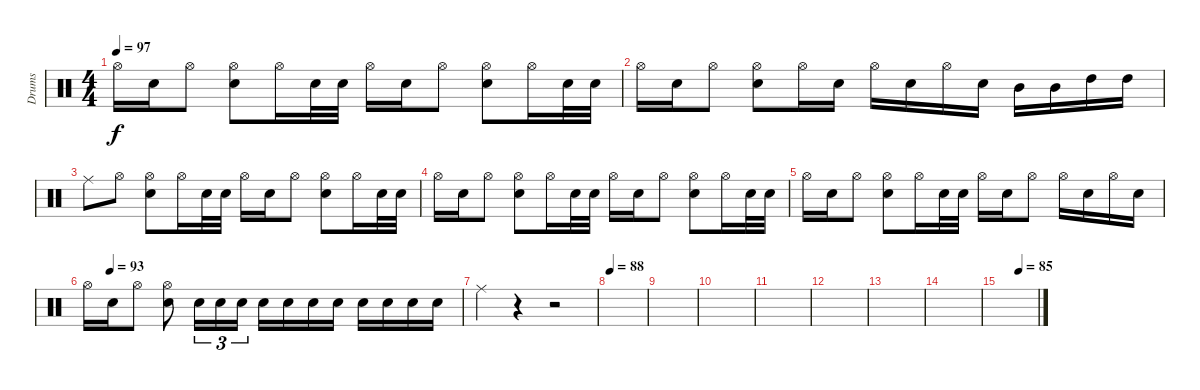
\track ("Drums" "Drums") {instrument percussion}
\staff {score}
\articulation defaults
\ts (4 4)
\tempo 97
\clef neutral
\ks c "Hi-Hat (open)".16{dy f} "Snare (hit) 2".16 "Hi-Hat (open)".8
("Hi-Hat (open)" "Snare (hit) 2").8 "Hi-Hat (open)".16 "Snare (hit) 2".32 "Snare (hit) 2".32 "Hi-Hat (open)".16 "Snare (hit) 2".16 "Hi-Hat (open)".8 ("Hi-Hat (open)" "Snare (hit) 2").8 "Hi-Hat (open)".16 "Snare (hit) 2".32 "Snare (hit) 2".32 |
"Hi-Hat (open)".16 "Snare (hit) 2".16 "Hi-Hat (open)".8 ("Hi-Hat (open)" "Snare (hit) 2").8 "Hi-Hat (open)".16 "Snare (hit) 2".16 "Hi-Hat (open)".16 "Snare (hit) 2".16 "Hi-Hat (open)".16 "Snare (hit) 2".16 "Mid Tom (hit)".16 "Mid Tom (hit)".16 "High Tom (hit)".16 "High Tom (hit)".16 |
"Ride (middle)".8 "Hi-Hat (open)".8 ("Hi-Hat (open)" "Snare (hit) 2").8 "Hi-Hat (open)".16 "Snare (hit) 2".32 "Snare (hit) 2".32 "Hi-Hat (open)".16 "Snare (hit) 2".16 "Hi-Hat (open)".8 ("Hi-Hat (open)" "Snare (hit) 2").8 "Hi-Hat (open)".16 "Snare (hit) 2".32 "Snare (hit) 2".32 |
"Hi-Hat (open)".16 "Snare (hit) 2".16 "Hi-Hat (open)".8 ("Hi-Hat (open)" "Snare (hit) 2").8 "Hi-Hat (open)".16 "Snare (hit) 2".32 "Snare (hit) 2".32 "Hi-Hat (open)".16 "Snare (hit) 2".16 "Hi-Hat (open)".8 ("Hi-Hat (open)" "Snare (hit) 2").8 "Hi-Hat (open)".16 "Snare (hit) 2".32 "Snare (hit) 2".32 |
"Hi-Hat (open)".16 "Snare (hit) 2".16 "Hi-Hat (open)".8 ("Hi-Hat (open)" "Snare (hit) 2").8 "Hi-Hat (open)".16 "Snare (hit) 2".32 "Snare (hit) 2".32 "Hi-Hat (open)".16 "Snare (hit) 2".16 "Hi-Hat (open)".8 "Hi-Hat (open)".16 "Snare (hit) 2".16 "Hi-Hat (open)".16 "Snare (hit) 2".16 |
\tempo (93 0.0625)
"Hi-Hat (open)".16 "Snare (hit) 2".16 "Hi-Hat (open)".8 ("Hi-Hat (open)" "Snare (hit) 2").8 "Snare (hit) 2".16{tu (3 2)} "Snare (hit) 2".16{tu (3 2)} "Snare (hit) 2".16{tu (3 2)} "Snare (hit) 2".16 "Snare (hit) 2".16 "Snare (hit) 2".16 "Snare (hit) 2".16 "Snare (hit) 2".16 "Snare (hit) 2".16 "Snare (hit) 2".16 "Snare (hit) 2".16 |
"Ride (middle)".4 r.4 r.2 |
\tempo 88
|
|
|
|
|
|
|
\tempo (85 0.5)
